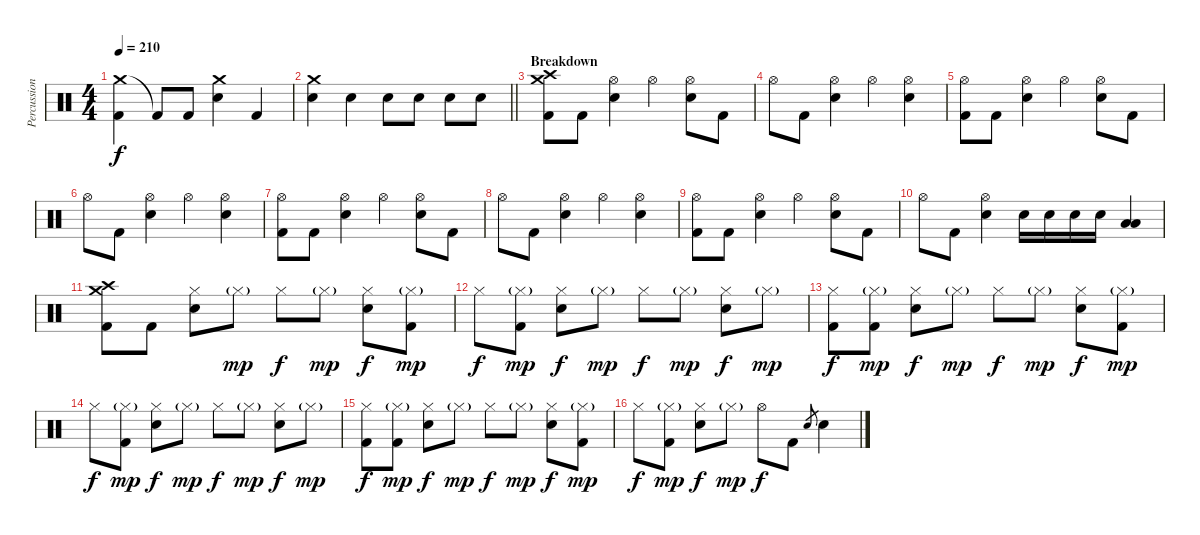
\track ("Percussion" "Percussion") {instrument percussion}
\staff {score}
\articulation defaults
\ts (4 4)
\tempo 210
\clef neutral
\ks c
("Crash medium (hit)" "Kick (hit) 2").4{dy f} "Kick (hit) 2"{t}.8 "Kick (hit) 2".8 ("Crash medium (hit)" "Electric Snare (hit)").4 "Kick (hit) 2".4 |
\barLineRight lightlight
("Crash medium (hit)" "Electric Snare (hit)").4 "Electric Snare (hit)".4 "Electric Snare (hit)".8 "Electric Snare (hit)".8 "Electric Snare (hit)".8 "Electric Snare (hit)".8 |
\section ("" "Breakdown")
("Crash medium (hit)" "Crash high (hit)" "Kick (hit) 2").8 "Kick (hit) 2".8 ("Hi-Hat (open)" "Electric Snare (hit)").4 "Hi-Hat (open)".4 ("Hi-Hat (open)" "Electric Snare (hit)").8 "Kick (hit) 2".8 |
"Hi-Hat (open)".8 "Kick (hit) 2".8 ("Hi-Hat (open)" "Electric Snare (hit)").4 "Hi-Hat (open)".4 ("Hi-Hat (open)" "Electric Snare (hit)").4 |
("Hi-Hat (open)" "Kick (hit) 2").8 "Kick (hit) 2".8 ("Hi-Hat (open)" "Electric Snare (hit)").4 "Hi-Hat (open)".4 ("Hi-Hat (open)" "Electric Snare (hit)").8 "Kick (hit) 2".8 |
"Hi-Hat (open)".8 "Kick (hit) 2".8 ("Hi-Hat (open)" "Electric Snare (hit)").4 "Hi-Hat (open)".4 ("Hi-Hat (open)" "Electric Snare (hit)").4 |
("Hi-Hat (open)" "Kick (hit) 2").8 "Kick (hit) 2".8 ("Hi-Hat (open)" "Electric Snare (hit)").4 "Hi-Hat (open)".4 ("Hi-Hat (open)" "Electric Snare (hit)").8 "Kick (hit) 2".8 |
"Hi-Hat (open)".8 "Kick (hit) 2".8 ("Hi-Hat (open)" "Electric Snare (hit)").4 "Hi-Hat (open)".4 ("Hi-Hat (open)" "Electric Snare (hit)").4 |
("Hi-Hat (open)" "Kick (hit) 2").8 "Kick (hit) 2".8 ("Hi-Hat (open)" "Electric Snare (hit)").4 "Hi-Hat (open)".4 ("Hi-Hat (open)" "Electric Snare (hit)").8 "Kick (hit) 2".8 |
"Hi-Hat (open)".8 "Kick (hit) 2".8 ("Hi-Hat (open)" "Electric Snare (hit)").4 "Electric Snare (hit)".16 "Electric Snare (hit)".16 "Electric Snare (hit)".16 "Electric Snare (hit)".16 ("Low Tom (hit)" "Low Floor Tom (hit)").4 |
("Crash medium (hit)" "Crash high (hit)" "Kick (hit) 2").8 "Kick (hit) 2".8 ("Hi-Hat (closed)" "Electric Snare (hit)").8 "Hi-Hat (closed)"{g}.8{dy mp} "Hi-Hat (closed)".8{dy f} "Hi-Hat (closed)"{g}.8{dy mp} ("Hi-Hat (closed)" "Electric Snare (hit)").8{dy f} ("Hi-Hat (closed)"{g} "Kick (hit) 2").8{dy mp} |
"Hi-Hat (closed)".8{dy f} ("Hi-Hat (closed)"{g} "Kick (hit) 2").8{dy mp} ("Hi-Hat (closed)" "Electric Snare (hit)").8{dy f} "Hi-Hat (closed)"{g}.8{dy mp} "Hi-Hat (closed)".8{dy f} "Hi-Hat (closed)"{g}.8{dy mp} ("Hi-Hat (closed)" "Electric Snare (hit)").8{dy f} "Hi-Hat (closed)"{g}.8{dy mp} |
("Hi-Hat (closed)" "Kick (hit) 2").8{dy f} ("Hi-Hat (closed)"{g} "Kick (hit) 2").8{dy mp} ("Hi-Hat (closed)" "Electric Snare (hit)").8{dy f} "Hi-Hat (closed)"{g}.8{dy mp} "Hi-Hat (closed)".8{dy f} "Hi-Hat (closed)"{g}.8{dy mp} ("Hi-Hat (closed)" "Electric Snare (hit)").8{dy f} ("Hi-Hat (closed)"{g} "Kick (hit) 2").8{dy mp} |
"Hi-Hat (closed)".8{dy f} ("Hi-Hat (closed)"{g} "Kick (hit) 2").8{dy mp} ("Hi-Hat (closed)" "Electric Snare (hit)").8{dy f} "Hi-Hat (closed)"{g}.8{dy mp} "Hi-Hat (closed)".8{dy f} "Hi-Hat (closed)"{g}.8{dy mp} ("Hi-Hat (closed)" "Electric Snare (hit)").8{dy f} "Hi-Hat (closed)"{g}.8{dy mp} |
("Hi-Hat (closed)" "Kick (hit) 2").8{dy f} ("Hi-Hat (closed)"{g} "Kick (hit) 2").8{dy mp} ("Hi-Hat (closed)" "Electric Snare (hit)").8{dy f} "Hi-Hat (closed)"{g}.8{dy mp} "Hi-Hat (closed)".8{dy f} "Hi-Hat (closed)"{g}.8{dy mp} ("Hi-Hat (closed)" "Electric Snare (hit)").8{dy f} ("Hi-Hat (closed)"{g} "Kick (hit) 2").8{dy mp} |
"Hi-Hat (closed)".8{dy f} ("Hi-Hat (closed)"{g} "Kick (hit) 2").8{dy mp} ("Hi-Hat (closed)" "Electric Snare (hit)").8{dy f} "Hi-Hat (closed)"{g}.8{dy mp} "Hi-Hat (open)".8{dy f} "Kick (hit) 2".8 "Electric Snare (hit)".8{gr} "Electric Snare (hit)".4
